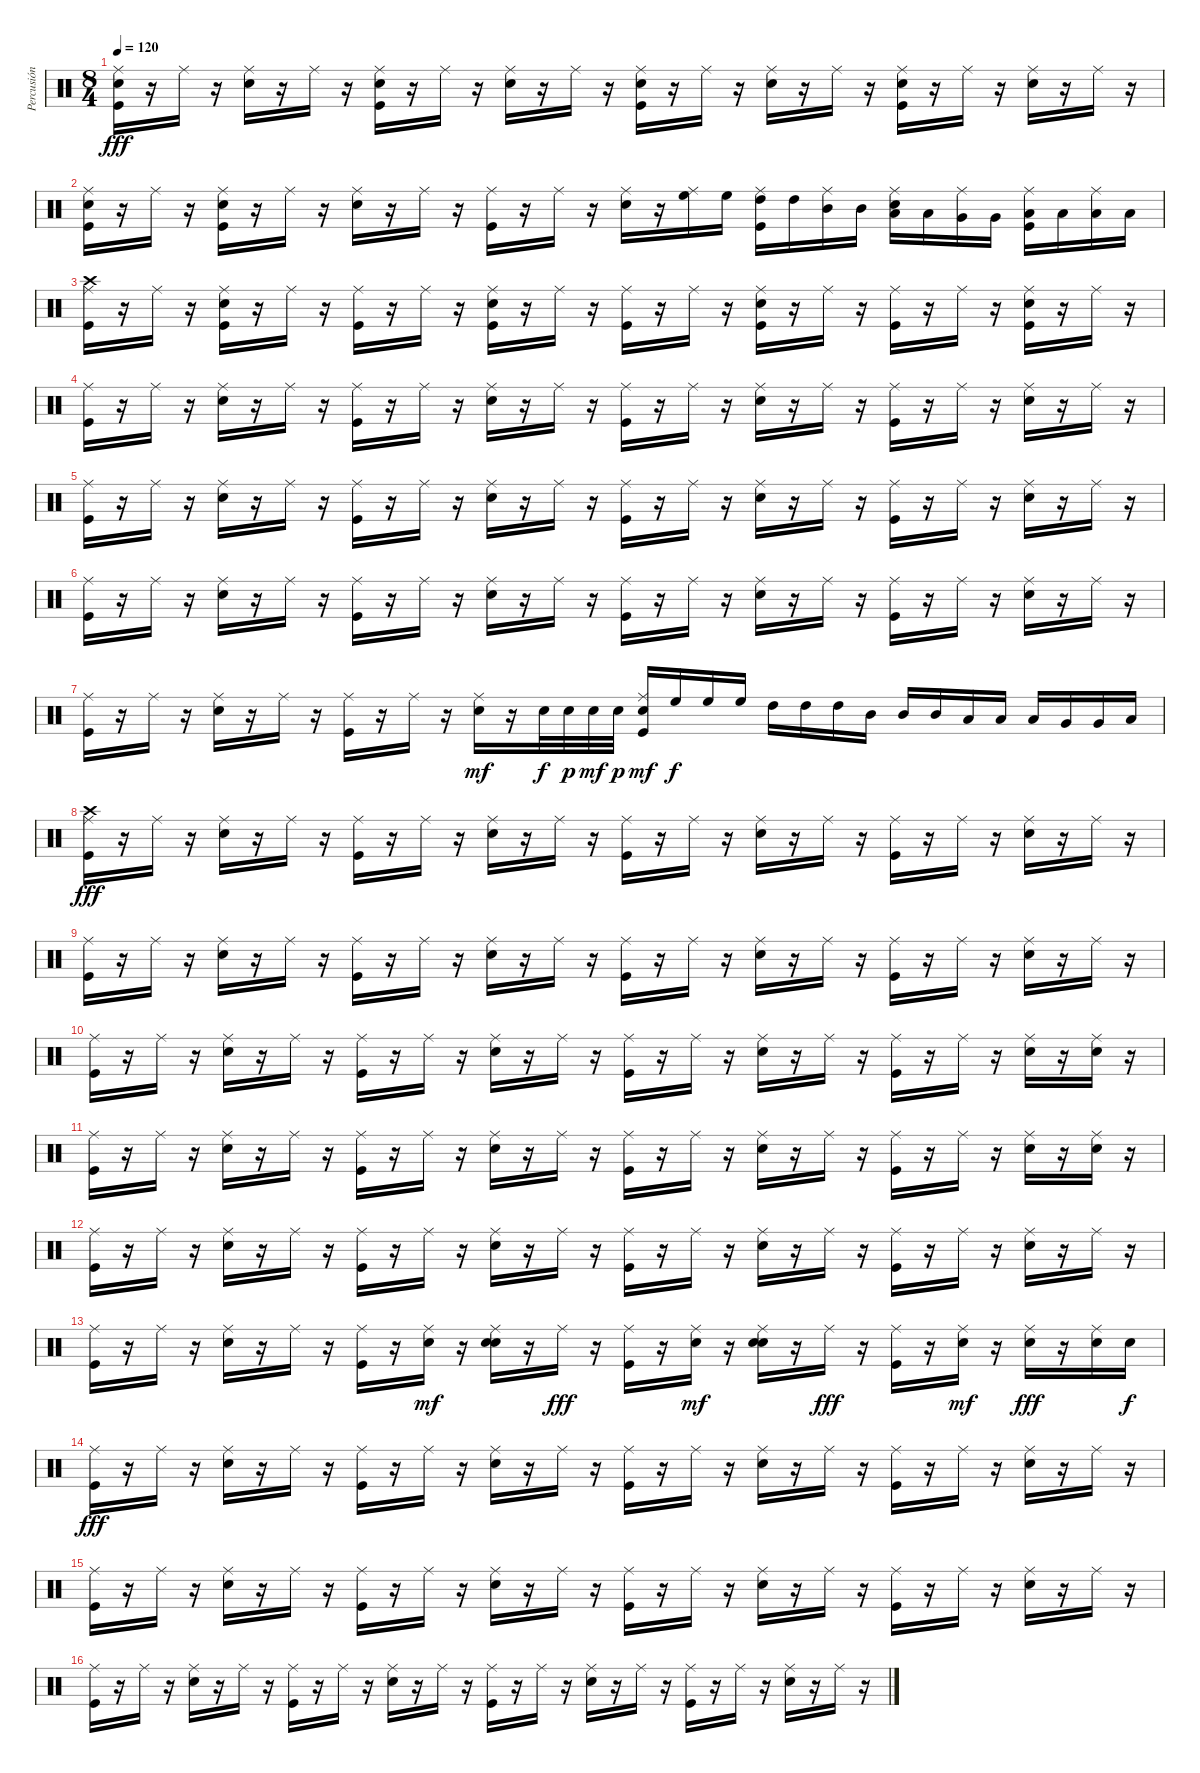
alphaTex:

\track ("Percusión" "Percusión") {instrument percussion}
\staff {score}
\articulation defaults
\ts (8 4)
\tempo 120
\clef neutral
\ks c
("Snare (hit) 2" "Ride (middle)" "Kick (hit)").16{dy fff} r.16 "Ride (middle)".16 r.16 ("Snare (hit) 2" "Ride (middle)").16 r.16 "Ride (middle)".16 r.16 ("Kick (hit)" "Snare (hit) 2" "Ride (middle)").16 r.16 "Ride (middle)".16 r.16 ("Snare (hit) 2" "Ride (middle)").16 r.16 "Ride (middle)".16 r.16 ("Kick (hit)" "Snare (hit) 2" "Ride (middle)").16 r.16 "Ride (middle)".16 r.16 ("Snare (hit) 2" "Ride (middle)").16 r.16 "Ride (middle)".16 r.16 ("Kick (hit)" "Snare (hit) 2" "Ride (middle)").16 r.16 "Ride (middle)".16 r.16 ("Snare (hit) 2" "Ride (middle)").16 r.16 "Ride (middle)".16 r.16 |
("Snare (hit) 2" "Ride (middle)" "Kick (hit)").16 r.16 "Ride (middle)".16 r.16 ("Kick (hit)" "Ride (middle)" "Snare (hit) 2").16 r.16 "Ride (middle)".16 r.16 ("Snare (hit) 2" "Ride (middle)").16 r.16 "Ride (middle)".16 r.16 ("Kick (hit)" "Ride (middle)").16 r.16 "Ride (middle)".16 r.16 ("Snare (hit) 2" "Ride (middle)").16 r.16 ("Ride (middle)" "High Floor Tom (hit)").16 "High Floor Tom (hit)".16 ("Kick (hit)" "Ride (middle)" "High Tom (hit)").16 "High Tom (hit)".16 ("Ride (middle)" "Mid Tom (hit)").16 "Mid Tom (hit)".16 ("Snare (hit) 2" "Ride (middle)" "Low Tom (hit)").16 "Low Tom (hit)".16 ("Ride (middle)" "Very Low Tom (hit)").16 "Very Low Tom (hit)".16 ("Kick (hit)" "Ride (middle)" "Low Floor Tom (hit)").16 "Low Floor Tom (hit)".16 ("Ride (middle)" "Low Floor Tom (hit)").16 "Low Floor Tom (hit)".16 |
("Crash high (hit)" "Ride (middle)" "Kick (hit)").16 r.16 "Ride (middle)".16 r.16 ("Kick (hit)" "Ride (middle)" "Snare (hit) 2").16 r.16 "Ride (middle)".16 r.16 ("Kick (hit)" "Ride (middle)").16 r.16 "Ride (middle)".16 r.16 ("Kick (hit)" "Ride (middle)" "Snare (hit) 2").16 r.16 "Ride (middle)".16 r.16 ("Kick (hit)" "Ride (middle)").16 r.16 "Ride (middle)".16 r.16 ("Kick (hit)" "Ride (middle)" "Snare (hit) 2").16 r.16 "Ride (middle)".16 r.16 ("Kick (hit)" "Ride (middle)").16 r.16 "Ride (middle)".16 r.16 ("Kick (hit)" "Ride (middle)" "Snare (hit) 2").16 r.16 "Ride (middle)".16 r.16 |
("Ride (middle)" "Kick (hit)").16 r.16 "Ride (middle)".16 r.16 ("Snare (hit) 2" "Ride (middle)").16 r.16 "Ride (middle)".16 r.16 ("Kick (hit)" "Ride (middle)").16 r.16 "Ride (middle)".16 r.16 ("Snare (hit) 2" "Ride (middle)").16 r.16 "Ride (middle)".16 r.16 ("Kick (hit)" "Ride (middle)").16 r.16 "Ride (middle)".16 r.16 ("Snare (hit) 2" "Ride (middle)").16 r.16 "Ride (middle)".16 r.16 ("Kick (hit)" "Ride (middle)").16 r.16 "Ride (middle)".16 r.16 ("Snare (hit) 2" "Ride (middle)").16 r.16 "Ride (middle)".16 r.16 |
("Ride (middle)" "Kick (hit)").16 r.16 "Ride (middle)".16 r.16 ("Snare (hit) 2" "Ride (middle)").16 r.16 "Ride (middle)".16 r.16 ("Kick (hit)" "Ride (middle)").16 r.16 "Ride (middle)".16 r.16 ("Snare (hit) 2" "Ride (middle)").16 r.16 "Ride (middle)".16 r.16 ("Kick (hit)" "Ride (middle)").16 r.16 "Ride (middle)".16 r.16 ("Snare (hit) 2" "Ride (middle)").16 r.16 "Ride (middle)".16 r.16 ("Kick (hit)" "Ride (middle)").16 r.16 "Ride (middle)".16 r.16 ("Snare (hit) 2" "Ride (middle)").16 r.16 "Ride (middle)".16 r.16 |
("Ride (middle)" "Kick (hit)").16 r.16 "Ride (middle)".16 r.16 ("Snare (hit) 2" "Ride (middle)").16 r.16 "Ride (middle)".16 r.16 ("Kick (hit)" "Ride (middle)").16 r.16 "Ride (middle)".16 r.16 ("Snare (hit) 2" "Ride (middle)").16 r.16 "Ride (middle)".16 r.16 ("Kick (hit)" "Ride (middle)").16 r.16 "Ride (middle)".16 r.16 ("Snare (hit) 2" "Ride (middle)").16 r.16 "Ride (middle)".16 r.16 ("Kick (hit)" "Ride (middle)").16 r.16 "Ride (middle)".16 r.16 ("Snare (hit) 2" "Ride (middle)").16 r.16 "Ride (middle)".16 r.16 |
("Ride (middle)" "Kick (hit)").16 r.16 "Ride (middle)".16 r.16 ("Snare (hit) 2" "Ride (middle)").16 r.16 "Ride (middle)".16 r.16 ("Kick (hit)" "Ride (middle)").16 r.16 "Ride (middle)".16 r.16 ("Ride (middle)" "Snare (hit) 2").16{dy mf} r.16 "Snare (hit) 2".32{dy f} "Snare (hit) 2".32{dy p} "Snare (hit) 2".32{dy mf} "Snare (hit) 2".32{dy p} ("Kick (hit)" "Ride (middle)" "Snare (hit) 2").16{dy mf} "High Floor Tom (hit)".16{dy f} "High Floor Tom (hit)".16 "High Floor Tom (hit)".16 "High Tom (hit)".16 "High Tom (hit)".16 "High Tom (hit)".16 "Mid Tom (hit)".16 "Mid Tom (hit)".16 "Mid Tom (hit)".16 "Low Tom (hit)".16 "Low Tom (hit)".16 "Low Tom (hit)".16 "Very Low Tom (hit)".16 "Very Low Tom (hit)".16 "Low Floor Tom (hit)".16 |
("Ride (middle)" "Crash high (hit)" "Kick (hit)").16{dy fff} r.16 "Ride (middle)".16 r.16 ("Snare (hit) 2" "Ride (middle)").16 r.16 "Ride (middle)".16 r.16 ("Kick (hit)" "Ride (middle)").16 r.16 "Ride (middle)".16 r.16 ("Snare (hit) 2" "Ride (middle)").16 r.16 "Ride (middle)".16 r.16 ("Kick (hit)" "Ride (middle)").16 r.16 "Ride (middle)".16 r.16 ("Snare (hit) 2" "Ride (middle)").16 r.16 "Ride (middle)".16 r.16 ("Kick (hit)" "Ride (middle)").16 r.16 "Ride (middle)".16 r.16 ("Snare (hit) 2" "Ride (middle)").16 r.16 "Ride (middle)".16 r.16 |
("Ride (middle)" "Kick (hit)").16 r.16 "Ride (middle)".16 r.16 ("Snare (hit) 2" "Ride (middle)").16 r.16 "Ride (middle)".16 r.16 ("Kick (hit)" "Ride (middle)").16 r.16 "Ride (middle)".16 r.16 ("Snare (hit) 2" "Ride (middle)").16 r.16 "Ride (middle)".16 r.16 ("Kick (hit)" "Ride (middle)").16 r.16 "Ride (middle)".16 r.16 ("Snare (hit) 2" "Ride (middle)").16 r.16 "Ride (middle)".16 r.16 ("Kick (hit)" "Ride (middle)").16 r.16 "Ride (middle)".16 r.16 ("Snare (hit) 2" "Ride (middle)").16 r.16 "Ride (middle)".16 r.16 |
("Ride (middle)" "Kick (hit)").16 r.16 "Ride (middle)".16 r.16 ("Snare (hit) 2" "Ride (middle)").16 r.16 "Ride (middle)".16 r.16 ("Kick (hit)" "Ride (middle)").16 r.16 "Ride (middle)".16 r.16 ("Snare (hit) 2" "Ride (middle)").16 r.16 "Ride (middle)".16 r.16 ("Kick (hit)" "Ride (middle)").16 r.16 "Ride (middle)".16 r.16 ("Snare (hit) 2" "Ride (middle)").16 r.16 "Ride (middle)".16 r.16 ("Kick (hit)" "Ride (middle)").16 r.16 "Ride (middle)".16 r.16 ("Snare (hit) 2" "Ride (middle)").16 r.16 ("Snare (hit) 2" "Ride (middle)").16 r.16 |
("Ride (middle)" "Kick (hit)").16 r.16 "Ride (middle)".16 r.16 ("Snare (hit) 2" "Ride (middle)").16 r.16 "Ride (middle)".16 r.16 ("Kick (hit)" "Ride (middle)").16 r.16 "Ride (middle)".16 r.16 ("Snare (hit) 2" "Ride (middle)").16 r.16 "Ride (middle)".16 r.16 ("Kick (hit)" "Ride (middle)").16 r.16 "Ride (middle)".16 r.16 ("Snare (hit) 2" "Ride (middle)").16 r.16 "Ride (middle)".16 r.16 ("Kick (hit)" "Ride (middle)").16 r.16 "Ride (middle)".16 r.16 ("Snare (hit) 2" "Ride (middle)").16 r.16 ("Snare (hit) 2" "Ride (middle)").16 r.16 |
("Ride (middle)" "Kick (hit)").16 r.16 "Ride (middle)".16 r.16 ("Snare (hit) 2" "Ride (middle)").16 r.16 "Ride (middle)".16 r.16 ("Kick (hit)" "Ride (middle)").16 r.16 "Ride (middle)".16 r.16 ("Snare (hit) 2" "Ride (middle)").16 r.16 "Ride (middle)".16 r.16 ("Kick (hit)" "Ride (middle)").16 r.16 "Ride (middle)".16 r.16 ("Snare (hit) 2" "Ride (middle)").16 r.16 "Ride (middle)".16 r.16 ("Kick (hit)" "Ride (middle)").16 r.16 "Ride (middle)".16 r.16 ("Snare (hit) 2" "Ride (middle)").16 r.16 "Ride (middle)".16 r.16 |
("Ride (middle)" "Kick (hit)").16 r.16 "Ride (middle)".16 r.16 ("Snare (hit) 2" "Ride (middle)").16 r.16 "Ride (middle)".16 r.16 ("Kick (hit)" "Ride (middle)").16 r.16 ("Ride (middle)" "Snare (hit) 2").16{dy mf} r.16 ("Snare (hit) 2" "Ride (middle)" "Snare (hit) 2").16 r.16 "Ride (middle)".16{dy fff} r.16 ("Kick (hit)" "Ride (middle)").16 r.16 ("Ride (middle)" "Snare (hit) 2").16{dy mf} r.16 ("Snare (hit) 2" "Ride (middle)" "Snare (hit) 2").16 r.16 "Ride (middle)".16{dy fff} r.16 ("Kick (hit)" "Ride (middle)").16 r.16 ("Ride (middle)" "Snare (hit) 2").16{dy mf} r.16 ("Snare (hit) 2" "Ride (middle)").16{dy fff} r.16 ("Snare (hit) 2" "Ride (middle)").16 "Snare (hit) 2".16{dy f} |
("Ride (middle)" "Kick (hit)").16{dy fff} r.16 "Ride (middle)".16 r.16 ("Snare (hit) 2" "Ride (middle)").16 r.16 "Ride (middle)".16 r.16 ("Kick (hit)" "Ride (middle)").16 r.16 "Ride (middle)".16 r.16 ("Snare (hit) 2" "Ride (middle)").16 r.16 "Ride (middle)".16 r.16 ("Kick (hit)" "Ride (middle)").16 r.16 "Ride (middle)".16 r.16 ("Snare (hit) 2" "Ride (middle)").16 r.16 "Ride (middle)".16 r.16 ("Kick (hit)" "Ride (middle)").16 r.16 "Ride (middle)".16 r.16 ("Snare (hit) 2" "Ride (middle)").16 r.16 "Ride (middle)".16 r.16 |
("Ride (middle)" "Kick (hit)").16 r.16 "Ride (middle)".16 r.16 ("Snare (hit) 2" "Ride (middle)").16 r.16 "Ride (middle)".16 r.16 ("Kick (hit)" "Ride (middle)").16 r.16 "Ride (middle)".16 r.16 ("Snare (hit) 2" "Ride (middle)").16 r.16 "Ride (middle)".16 r.16 ("Kick (hit)" "Ride (middle)").16 r.16 "Ride (middle)".16 r.16 ("Snare (hit) 2" "Ride (middle)").16 r.16 "Ride (middle)".16 r.16 ("Kick (hit)" "Ride (middle)").16 r.16 "Ride (middle)".16 r.16 ("Snare (hit) 2" "Ride (middle)").16 r.16 "Ride (middle)".16 r.16 |
("Ride (middle)" "Kick (hit)").16 r.16 "Ride (middle)".16 r.16 ("Snare (hit) 2" "Ride (middle)").16 r.16 "Ride (middle)".16 r.16 ("Kick (hit)" "Ride (middle)").16 r.16 "Ride (middle)".16 r.16 ("Snare (hit) 2" "Ride (middle)").16 r.16 "Ride (middle)".16 r.16 ("Kick (hit)" "Ride (middle)").16 r.16 "Ride (middle)".16 r.16 ("Snare (hit) 2" "Ride (middle)").16 r.16 "Ride (middle)".16 r.16 ("Kick (hit)" "Ride (middle)").16 r.16 "Ride (middle)".16 r.16 ("Snare (hit) 2" "Ride (middle)").16 r.16 "Ride (middle)".16 r.16
